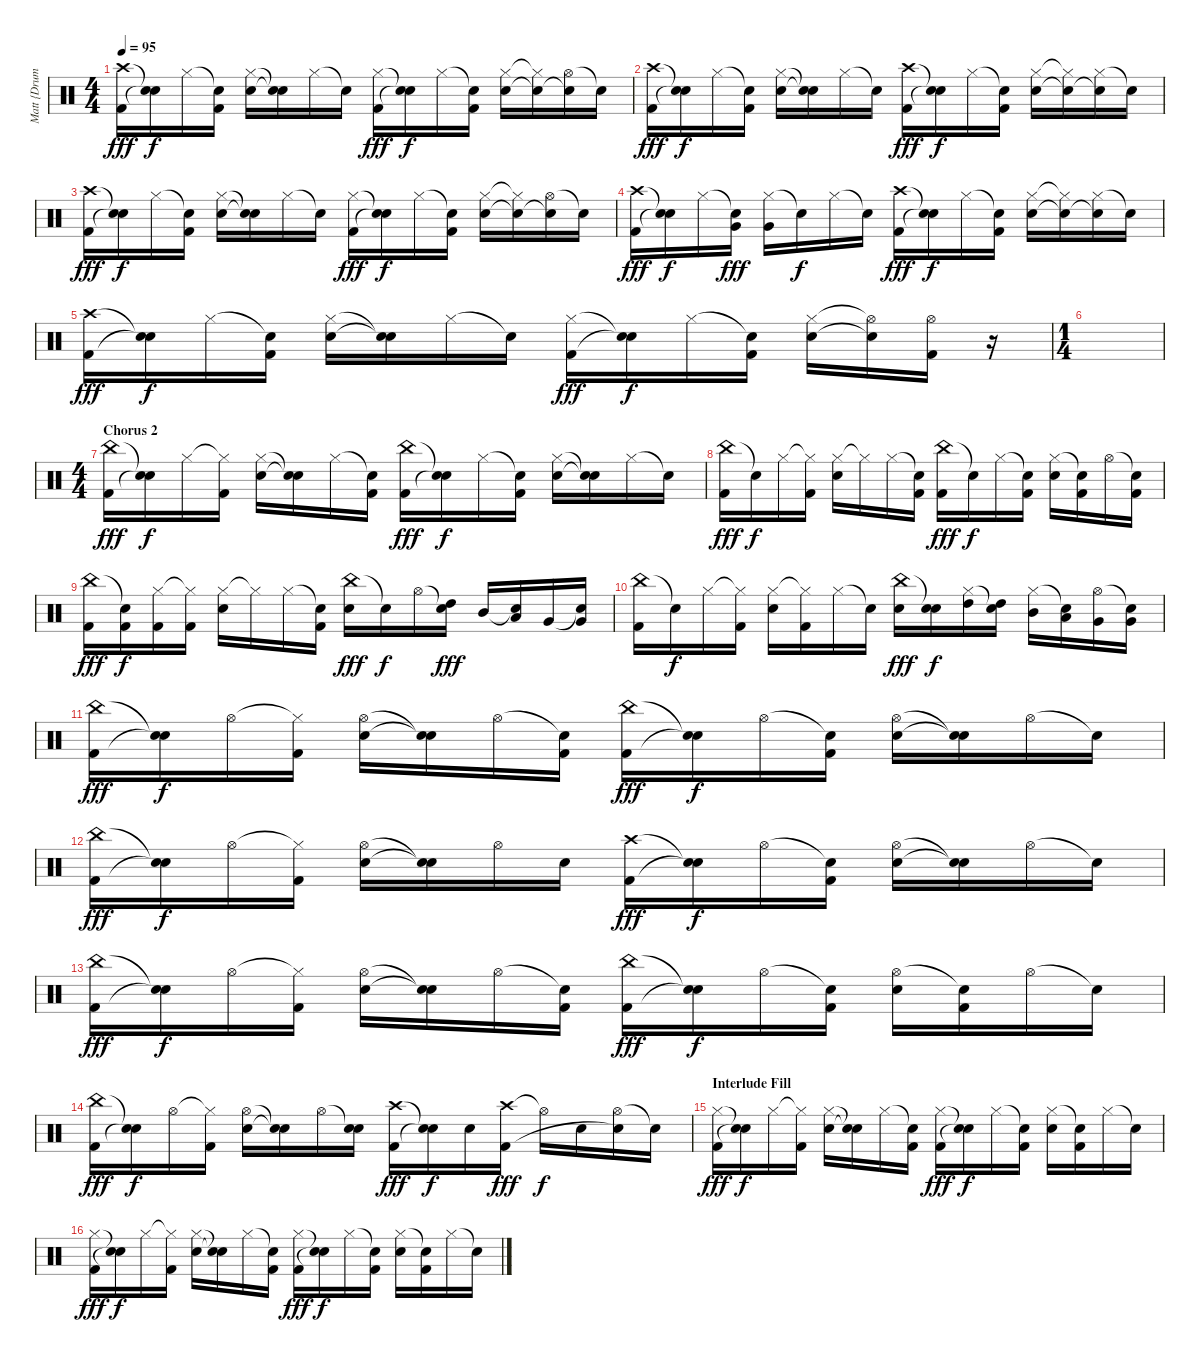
\track ("Matt {Drums}" "Matt {Drum") {instrument percussion}
\staff {score}
\articulation defaults
\ts (4 4)
\tempo 95
\clef neutral
\ks c
("Crash high (hit)" "Kick (hit) 2").16{dy fff} ("Snare (hit)"{t} "Snare (hit)"{t}).16{dy f} "Hi-Hat (closed)".16 ("Snare (hit)"{t} "Kick (hit) 2").16 ("Hi-Hat (closed)" "Electric Snare (hit)").16 ("Snare (hit)"{t} "Snare (hit)"{t}).16 "Hi-Hat (closed)".16 "Snare (hit)"{t}.16 ("Hi-Hat (closed)" "Kick (hit) 2").16{dy fff} ("Snare (hit)"{t} "Snare (hit)"{t}).16{dy f} "Hi-Hat (closed)".16 ("Snare (hit)"{t} "Kick (hit) 2").16 ("Hi-Hat (closed)" "Electric Snare (hit)").16 ("Hi-Hat (closed)"{t} "Snare (hit)"{t}).16 ("Hi-Hat (open)" "Snare (hit)"{t}).16 "Snare (hit)"{t}.16 |
("Crash high (hit)" "Kick (hit) 2").16{dy fff} ("Snare (hit)"{t} "Snare (hit)"{t}).16{dy f} "Hi-Hat (closed)".16 ("Snare (hit)"{t} "Kick (hit) 2").16 ("Hi-Hat (closed)" "Electric Snare (hit)").16 ("Snare (hit)"{t} "Snare (hit)"{t}).16 "Hi-Hat (closed)".16 "Snare (hit)"{t}.16 ("Crash high (hit)" "Kick (hit) 2").16{dy fff} ("Snare (hit)"{t} "Snare (hit)"{t}).16{dy f} "Hi-Hat (closed)".16 ("Snare (hit)"{t} "Kick (hit) 2").16 ("Hi-Hat (closed)" "Electric Snare (hit)").16 ("Hi-Hat (closed)"{t} "Snare (hit)"{t}).16 ("Hi-Hat (closed)" "Snare (hit)"{t}).16 "Snare (hit)"{t}.16 |
("Crash high (hit)" "Kick (hit) 2").16{dy fff} ("Snare (hit)"{t} "Snare (hit)"{t}).16{dy f} "Hi-Hat (closed)".16 ("Snare (hit)"{t} "Kick (hit) 2").16 ("Hi-Hat (closed)" "Electric Snare (hit)").16 ("Snare (hit)"{t} "Snare (hit)"{t}).16 "Hi-Hat (closed)".16 "Snare (hit)"{t}.16 ("Hi-Hat (closed)" "Kick (hit) 2").16{dy fff} ("Snare (hit)"{t} "Snare (hit)"{t}).16{dy f} "Hi-Hat (closed)".16 ("Snare (hit)"{t} "Kick (hit) 2").16 ("Hi-Hat (closed)" "Electric Snare (hit)").16 ("Hi-Hat (closed)"{t} "Snare (hit)"{t}).16 ("Hi-Hat (open)" "Snare (hit)"{t}).16 "Snare (hit)"{t}.16 |
("Crash high (hit)" "Kick (hit) 2").16{dy fff} ("Snare (hit)"{t} "Snare (hit)"{t}).16{dy f} "Hi-Hat (closed)".16 ("Snare (hit)"{t} "Very Low Tom (hit)").16{dy fff} ("Hi-Hat (closed)" "Very Low Tom (hit)").16 "Snare (hit)"{t}.16{dy f} "Hi-Hat (closed)".16 "Snare (hit)"{t}.16 ("Crash high (hit)" "Kick (hit) 2").16{dy fff} ("Snare (hit)"{t} "Snare (hit)"{t}).16{dy f} "Hi-Hat (closed)".16 ("Snare (hit)"{t} "Kick (hit) 2").16 ("Hi-Hat (closed)" "Electric Snare (hit)").16 ("Hi-Hat (closed)"{t} "Snare (hit)"{t}).16 ("Hi-Hat (closed)" "Snare (hit)"{t}).16 "Snare (hit)"{t}.16 |
("Crash high (hit)" "Kick (hit) 2").16{dy fff} ("Snare (hit)"{t} "Snare (hit)"{t}).16{dy f} "Hi-Hat (closed)".16 ("Snare (hit)"{t} "Kick (hit) 2").16 ("Hi-Hat (closed)" "Electric Snare (hit)").16 ("Snare (hit)"{t} "Snare (hit)"{t}).16 "Hi-Hat (closed)".16 "Snare (hit)"{t}.16 ("Hi-Hat (closed)" "Kick (hit) 2").16{dy fff} ("Snare (hit)"{t} "Snare (hit)"{t}).16{dy f} "Hi-Hat (closed)".16 ("Snare (hit)"{t} "Kick (hit) 2").16 ("Hi-Hat (closed)" "Electric Snare (hit)").16 ("Hi-Hat (open)"{t} "Snare (hit)"{t}).16 ("Hi-Hat (open)" "Kick (hit) 2").16 r.16 |
\ts (1 4)
|
\ts (4 4)
\section ("" "Chorus 2")
("China (hit)" "Kick (hit) 2").16{dy fff} ("Snare (hit)"{t} "Snare (hit)"{t}).16{dy f} "Hi-Hat (closed)".16 ("Hi-Hat (closed)"{t} "Kick (hit) 2").16 ("Hi-Hat (closed)" "Electric Snare (hit)").16 ("Snare (hit)"{t} "Snare (hit)"{t}).16 "Hi-Hat (closed)".16 ("Snare (hit)"{t} "Kick (hit) 2").16 ("China (hit)" "Kick (hit) 2").16{dy fff} ("Snare (hit)"{t} "Snare (hit)"{t}).16{dy f} "Hi-Hat (closed)".16 ("Snare (hit)"{t} "Kick (hit) 2").16 ("Hi-Hat (closed)" "Electric Snare (hit)").16 ("Snare (hit)"{t} "Snare (hit)"{t}).16 "Hi-Hat (closed)".16 "Snare (hit)"{t}.16 |
("China (hit)" "Kick (hit) 2").16{dy fff} "Snare (hit)"{t}.16{dy f} "Hi-Hat (closed)".16 ("Hi-Hat (closed)"{t} "Kick (hit) 2").16 ("Hi-Hat (closed)" "Electric Snare (hit)").16 "Hi-Hat (closed)"{t}.16 "Hi-Hat (closed)".16 ("Snare (hit)"{t} "Kick (hit) 2").16 ("China (hit)" "Kick (hit) 2").16{dy fff} "Snare (hit)"{t}.16{dy f} "Hi-Hat (closed)".16 ("Snare (hit)"{t} "Kick (hit) 2").16 ("Hi-Hat (closed)" "Electric Snare (hit)").16 ("Snare (hit)"{t} "Kick (hit) 2").16 "Hi-Hat (open)".16 ("Snare (hit)"{t} "Kick (hit) 2").16 |
("China (hit)" "Kick (hit) 2").16{dy fff} ("Snare (hit)"{t} "Kick (hit) 2").16{dy f} ("Hi-Hat (closed)" "Kick (hit) 2").16 ("Hi-Hat (closed)"{t} "Kick (hit) 2").16 ("Hi-Hat (closed)" "Electric Snare (hit)").16 "Hi-Hat (closed)"{t}.16 "Hi-Hat (closed)".16 ("Snare (hit)"{t} "Kick (hit) 2").16 ("China (hit)" "Electric Snare (hit)").16{dy fff} "Snare (hit)"{t}.16{dy f} "Hi-Hat (open)".16 ("Snare (hit)"{t} "High Tom (hit)").16{dy fff} "Mid Tom (hit)".16 ("Snare (hit)"{t} "Low Tom (hit)").16 "Very Low Tom (hit)".16 ("Snare (hit)"{t} "Very Low Tom (hit)").16 |
("China (hit)" "Kick (hit) 2").16 "Snare (hit)"{t}.16{dy f} "Hi-Hat (closed)".16 ("Hi-Hat (closed)"{t} "Kick (hit) 2").16 ("Hi-Hat (closed)" "Electric Snare (hit)").16 ("Hi-Hat (closed)"{t} "Kick (hit) 2").16 "Hi-Hat (closed)".16 "Snare (hit)"{t}.16 ("China (hit)" "Electric Snare (hit)").16{dy fff} ("Snare (hit)"{t} "Electric Snare (hit)").16{dy f} ("Hi-Hat (closed)" "High Tom (hit)").16 ("Snare (hit)"{t} "High Tom (hit)").16 ("Hi-Hat (closed)" "Mid Tom (hit)").16 ("Snare (hit)"{t} "Low Tom (hit)").16 ("Hi-Hat (open)" "Very Low Tom (hit)").16 ("Snare (hit)"{t} "Very Low Tom (hit)").16 |
("China (hit)" "Kick (hit) 2").16{dy fff} ("Snare (hit)"{t} "Snare (hit)"{t}).16{dy f} "Hi-Hat (open)".16 ("Hi-Hat (closed)"{t} "Kick (hit) 2").16 ("Hi-Hat (open)" "Electric Snare (hit)").16 ("Snare (hit)"{t} "Snare (hit)"{t}).16 "Hi-Hat (open)".16 ("Snare (hit)"{t} "Kick (hit) 2").16 ("China (hit)" "Kick (hit) 2").16{dy fff} ("Snare (hit)"{t} "Snare (hit)"{t}).16{dy f} "Hi-Hat (open)".16 ("Snare (hit)"{t} "Kick (hit) 2").16 ("Hi-Hat (open)" "Electric Snare (hit)").16 ("Snare (hit)"{t} "Snare (hit)"{t}).16 "Hi-Hat (open)".16 "Snare (hit)"{t}.16 |
("China (hit)" "Kick (hit) 2").16{dy fff} ("Snare (hit)"{t} "Snare (hit)"{t}).16{dy f} "Hi-Hat (open)".16 ("Hi-Hat (closed)"{t} "Kick (hit) 2").16 ("Hi-Hat (open)" "Electric Snare (hit)").16 ("Snare (hit)"{t} "Snare (hit)"{t}).16 "Hi-Hat (open)".16 "Electric Snare (hit)".16 ("Crash high (hit)" "Kick (hit) 2").16{dy fff} ("Snare (hit)"{t} "Snare (hit)"{t}).16{dy f} "Hi-Hat (open)".16 ("Snare (hit)"{t} "Kick (hit) 2").16 ("Hi-Hat (open)" "Electric Snare (hit)").16 ("Snare (hit)"{t} "Snare (hit)"{t}).16 "Hi-Hat (open)".16 "Snare (hit)"{t}.16 |
("China (hit)" "Kick (hit) 2").16{dy fff} ("Snare (hit)"{t} "Snare (hit)"{t}).16{dy f} "Hi-Hat (open)".16 ("Hi-Hat (closed)"{t} "Kick (hit) 2").16 ("Hi-Hat (open)" "Electric Snare (hit)").16 ("Snare (hit)"{t} "Snare (hit)"{t}).16 "Hi-Hat (open)".16 ("Snare (hit)"{t} "Kick (hit) 2").16 ("China (hit)" "Kick (hit) 2").16{dy fff} ("Snare (hit)"{t} "Snare (hit)"{t}).16{dy f} "Hi-Hat (open)".16 ("Snare (hit)"{t} "Kick (hit) 2").16 ("Hi-Hat (open)" "Electric Snare (hit)").16 ("Snare (hit)"{t} "Kick (hit) 2").16 "Hi-Hat (open)".16 "Snare (hit)"{t}.16 |
("China (hit)" "Kick (hit) 2").16{dy fff} ("Snare (hit)"{t} "Snare (hit)"{t}).16{dy f} "Hi-Hat (open)".16 ("Hi-Hat (closed)"{t} "Kick (hit) 2").16 ("Hi-Hat (open)" "Electric Snare (hit)").16 ("Snare (hit)"{t} "Snare (hit)"{t}).16 "Hi-Hat (open)".16 ("Snare (hit)"{t} "Electric Snare (hit)").16 ("Crash high (hit)" "Kick (hit) 2").16{dy fff} ("Snare (hit)"{t} "Snare (hit)"{t}).16{dy f} "Electric Snare (hit)".16 ("Crash high (hit)" "Kick (hit) 2").16{dy fff} "Hi-Hat (open)"{t}.16{dy f} "Electric Snare (hit)".16 ("Hi-Hat (open)" "Snare (hit)"{t}).16 "Snare (hit)"{t}.16 |
\section ("" "Interlude Fill")
("Hi-Hat (closed)" "Kick (hit) 2").16{dy fff} ("Snare (hit)"{t} "Snare (hit)"{t}).16{dy f} "Hi-Hat (closed)".16 ("Hi-Hat (closed)"{t} "Kick (hit) 2").16 ("Hi-Hat (closed)" "Electric Snare (hit)").16 ("Snare (hit)"{t} "Snare (hit)"{t}).16 "Hi-Hat (closed)".16 ("Snare (hit)"{t} "Kick (hit) 2").16 ("Hi-Hat (closed)" "Kick (hit) 2").16{dy fff} ("Snare (hit)"{t} "Snare (hit)"{t}).16{dy f} "Hi-Hat (closed)".16 ("Snare (hit)"{t} "Kick (hit) 2").16 ("Hi-Hat (closed)" "Electric Snare (hit)").16 ("Snare (hit)"{t} "Kick (hit) 2").16 "Hi-Hat (closed)".16 "Snare (hit)"{t}.16 |
("Hi-Hat (closed)" "Kick (hit) 2").16{dy fff} ("Snare (hit)"{t} "Snare (hit)"{t}).16{dy f} "Hi-Hat (closed)".16 ("Hi-Hat (closed)"{t} "Kick (hit) 2").16 ("Hi-Hat (closed)" "Electric Snare (hit)").16 ("Snare (hit)"{t} "Snare (hit)"{t}).16 "Hi-Hat (closed)".16 ("Snare (hit)"{t} "Kick (hit) 2").16 ("Hi-Hat (closed)" "Kick (hit) 2").16{dy fff} ("Snare (hit)"{t} "Snare (hit)"{t}).16{dy f} "Hi-Hat (closed)".16 ("Snare (hit)"{t} "Kick (hit) 2").16 ("Hi-Hat (closed)" "Electric Snare (hit)").16 ("Snare (hit)"{t} "Kick (hit) 2").16 "Hi-Hat (closed)".16 "Snare (hit)"{t}.16
